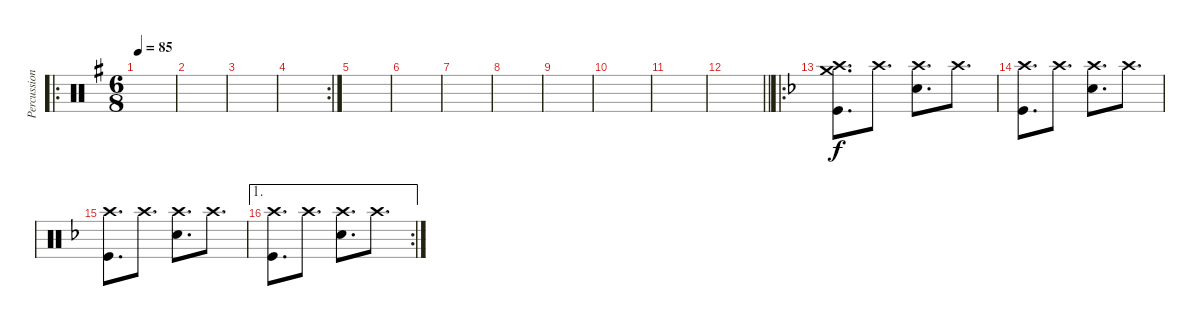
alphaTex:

\track ("Percussion" "Percussion") {instrument percussion}
\staff {score}
\articulation defaults
\ro
\ts (6 8)
\tempo 85
\clef neutral
\ks g
|
|
|
\rc 2
|
|
|
|
|
|
|
|
\barLineRight lightlight
|
\ro
\ks f
("Kick (hit)" "Crash high (hit)" "Crash medium (hit)").8{d} "Crash high (hit)".8{d} ("Snare (hit) 2" "Crash high (hit)").8{d} "Crash high (hit)".8{d} |
("Kick (hit)" "Crash high (hit)").8{d} "Crash high (hit)".8{d} ("Snare (hit) 2" "Crash high (hit)").8{d} "Crash high (hit)".8{d} |
("Kick (hit)" "Crash high (hit)").8{d} "Crash high (hit)".8{d} ("Snare (hit) 2" "Crash high (hit)").8{d} "Crash high (hit)".8{d} |
\ae 1
\rc 2
("Kick (hit)" "Crash high (hit)").8{d} "Crash high (hit)".8{d} ("Snare (hit) 2" "Crash high (hit)").8{d} "Crash high (hit)".8{d}
